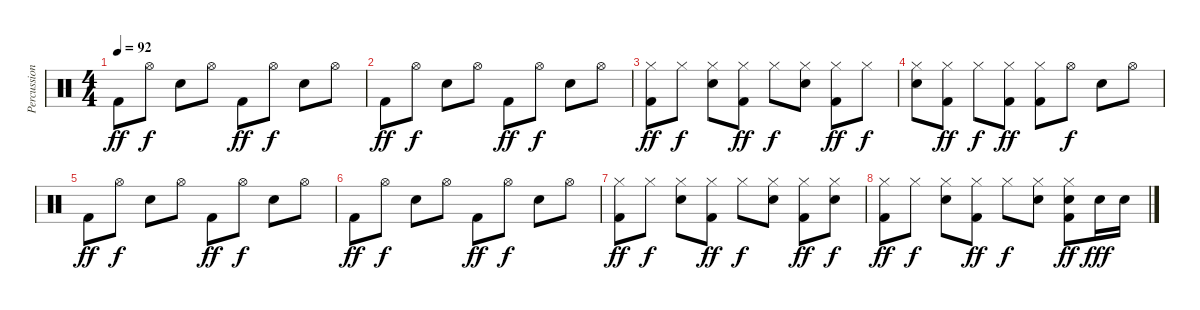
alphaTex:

\track ("Percussion" "Percussion") {instrument percussion}
\staff {score}
\articulation defaults
\ts (4 4)
\tempo 92
\clef neutral
\ks c "Kick (hit) 2".8{dy ff} "Hi-Hat (open)".8{dy f} "Snare (hit) 2".8 "Hi-Hat (open)".8 "Kick (hit) 2".8{dy ff} "Hi-Hat (open)".8{dy f} "Snare (hit) 2".8 "Hi-Hat (open)".8
|
"Kick (hit) 2".8{dy ff} "Hi-Hat (open)".8{dy f} "Snare (hit) 2".8 "Hi-Hat (open)".8 "Kick (hit) 2".8{dy ff} "Hi-Hat (open)".8{dy f} "Snare (hit) 2".8 "Hi-Hat (open)".8 |
("Hi-Hat (closed)" "Kick (hit) 2").8{dy ff} "Hi-Hat (closed)".8{dy f} ("Hi-Hat (closed)" "Snare (hit) 2").8 ("Hi-Hat (closed)" "Kick (hit) 2").8{dy ff} "Hi-Hat (closed)".8{dy f} ("Hi-Hat (closed)" "Snare (hit) 2").8 ("Hi-Hat (closed)" "Kick (hit) 2").8{dy ff} "Hi-Hat (closed)".8{dy f} |
("Hi-Hat (closed)" "Snare (hit) 2").8 ("Hi-Hat (closed)" "Kick (hit) 2").8{dy ff} "Hi-Hat (closed)".8{dy f} ("Hi-Hat (closed)" "Kick (hit) 2").8{dy ff} ("Hi-Hat (closed)" "Kick (hit) 2").8 "Hi-Hat (open)".8{dy f} "Snare (hit) 2".8 "Hi-Hat (open)".8 |
"Kick (hit) 2".8{dy ff} "Hi-Hat (open)".8{dy f} "Snare (hit) 2".8 "Hi-Hat (open)".8 "Kick (hit) 2".8{dy ff} "Hi-Hat (open)".8{dy f} "Snare (hit) 2".8 "Hi-Hat (open)".8 |
"Kick (hit) 2".8{dy ff} "Hi-Hat (open)".8{dy f} "Snare (hit) 2".8 "Hi-Hat (open)".8 "Kick (hit) 2".8{dy ff} "Hi-Hat (open)".8{dy f} "Snare (hit) 2".8 "Hi-Hat (open)".8 |
("Hi-Hat (closed)" "Kick (hit) 2").8{dy ff} "Hi-Hat (closed)".8{dy f} ("Hi-Hat (closed)" "Snare (hit) 2").8 ("Hi-Hat (closed)" "Kick (hit) 2").8{dy ff} "Hi-Hat (closed)".8{dy f} ("Hi-Hat (closed)" "Snare (hit) 2").8 ("Hi-Hat (closed)" "Kick (hit) 2").8{dy ff} ("Hi-Hat (closed)" "Snare (hit) 2").8{dy f} |
("Hi-Hat (closed)" "Kick (hit) 2").8{dy ff} "Hi-Hat (closed)".8{dy f} ("Hi-Hat (closed)" "Snare (hit) 2").8 ("Hi-Hat (closed)" "Kick (hit) 2").8{dy ff} "Hi-Hat (closed)".8{dy f} ("Hi-Hat (closed)" "Snare (hit) 2").8 ("Hi-Hat (closed)" "Snare (hit) 2" "Kick (hit) 2").8{dy ff} "Snare (hit) 2".16{dy fff} "Snare (hit) 2".16
